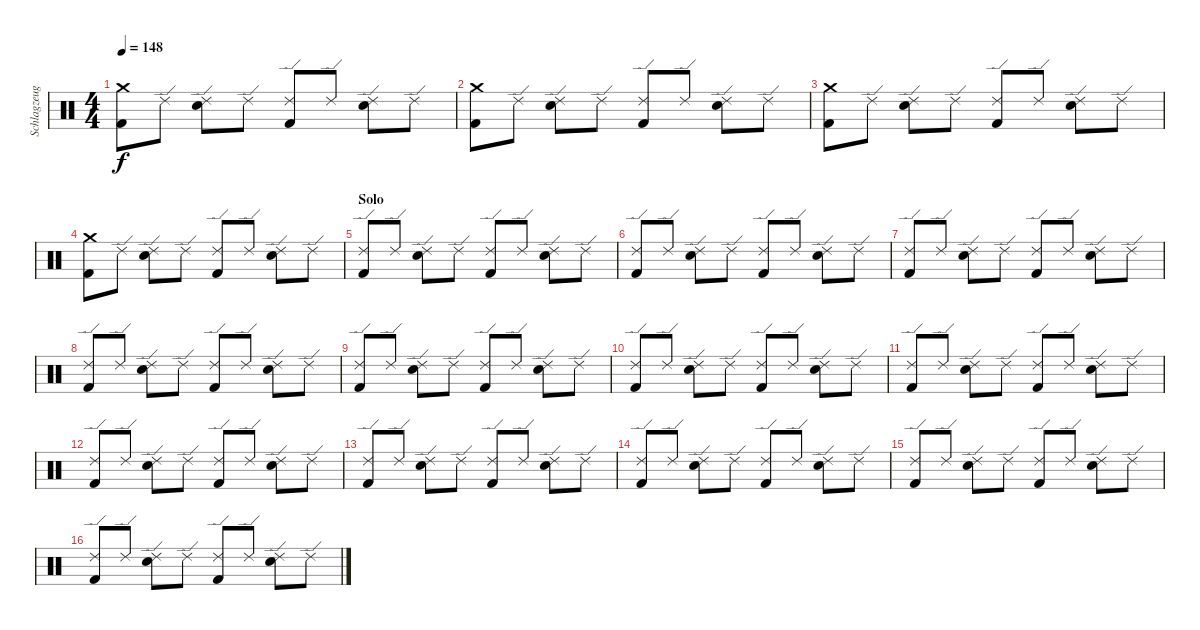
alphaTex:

\track ("Schlagzeug" "Schlagzeug") {instrument percussion}
\staff {score}
\articulation defaults
\ts (4 4)
\tempo 148
\clef neutral
\ks c
("Crash medium (hit)" "Kick (hit) 2").8{dy f} "Ride (edge) 2".8 ("Ride (edge) 2" "Snare (hit) 2").8 "Ride (edge) 2".8 ("Ride (edge) 2" "Kick (hit) 2").8 "Ride (edge) 2".8 ("Ride (edge) 2" "Snare (hit) 2").8 "Ride (edge) 2".8 |
("Crash medium (hit)" "Kick (hit) 2").8 "Ride (edge) 2".8 ("Ride (edge) 2" "Snare (hit) 2").8 "Ride (edge) 2".8 ("Ride (edge) 2" "Kick (hit) 2").8 "Ride (edge) 2".8 ("Ride (edge) 2" "Snare (hit) 2").8 "Ride (edge) 2".8 |
("Crash medium (hit)" "Kick (hit) 2").8 "Ride (edge) 2".8 ("Ride (edge) 2" "Snare (hit) 2").8 "Ride (edge) 2".8 ("Ride (edge) 2" "Kick (hit) 2").8 "Ride (edge) 2".8 ("Ride (edge) 2" "Snare (hit) 2").8 "Ride (edge) 2".8 |
("Crash medium (hit)" "Kick (hit) 2").8 "Ride (edge) 2".8 ("Ride (edge) 2" "Snare (hit) 2").8 "Ride (edge) 2".8 ("Ride (edge) 2" "Kick (hit) 2").8 "Ride (edge) 2".8 ("Ride (edge) 2" "Snare (hit) 2").8 "Ride (edge) 2".8 |
\section ("" "Solo")
("Ride (edge) 2" "Kick (hit) 2").8 "Ride (edge) 2".8 ("Ride (edge) 2" "Snare (hit) 2").8 "Ride (edge) 2".8 ("Ride (edge) 2" "Kick (hit) 2").8 "Ride (edge) 2".8 ("Ride (edge) 2" "Snare (hit) 2").8 "Ride (edge) 2".8 |
("Ride (edge) 2" "Kick (hit) 2").8 "Ride (edge) 2".8 ("Ride (edge) 2" "Snare (hit) 2").8 "Ride (edge) 2".8 ("Ride (edge) 2" "Kick (hit) 2").8 "Ride (edge) 2".8 ("Ride (edge) 2" "Snare (hit) 2").8 "Ride (edge) 2".8 |
("Ride (edge) 2" "Kick (hit) 2").8 "Ride (edge) 2".8 ("Ride (edge) 2" "Snare (hit) 2").8 "Ride (edge) 2".8 ("Ride (edge) 2" "Kick (hit) 2").8 "Ride (edge) 2".8 ("Ride (edge) 2" "Snare (hit) 2").8 "Ride (edge) 2".8 |
("Ride (edge) 2" "Kick (hit) 2").8 "Ride (edge) 2".8 ("Ride (edge) 2" "Snare (hit) 2").8 "Ride (edge) 2".8 ("Ride (edge) 2" "Kick (hit) 2").8 "Ride (edge) 2".8 ("Ride (edge) 2" "Snare (hit) 2").8 "Ride (edge) 2".8 |
("Ride (edge) 2" "Kick (hit) 2").8 "Ride (edge) 2".8 ("Ride (edge) 2" "Snare (hit) 2").8 "Ride (edge) 2".8 ("Ride (edge) 2" "Kick (hit) 2").8 "Ride (edge) 2".8 ("Ride (edge) 2" "Snare (hit) 2").8 "Ride (edge) 2".8 |
("Ride (edge) 2" "Kick (hit) 2").8 "Ride (edge) 2".8 ("Ride (edge) 2" "Snare (hit) 2").8 "Ride (edge) 2".8 ("Ride (edge) 2" "Kick (hit) 2").8 "Ride (edge) 2".8 ("Ride (edge) 2" "Snare (hit) 2").8 "Ride (edge) 2".8 |
("Ride (edge) 2" "Kick (hit) 2").8 "Ride (edge) 2".8 ("Ride (edge) 2" "Snare (hit) 2").8 "Ride (edge) 2".8 ("Ride (edge) 2" "Kick (hit) 2").8 "Ride (edge) 2".8 ("Ride (edge) 2" "Snare (hit) 2").8 "Ride (edge) 2".8 |
("Ride (edge) 2" "Kick (hit) 2").8 "Ride (edge) 2".8 ("Ride (edge) 2" "Snare (hit) 2").8 "Ride (edge) 2".8 ("Ride (edge) 2" "Kick (hit) 2").8 "Ride (edge) 2".8 ("Ride (edge) 2" "Snare (hit) 2").8 "Ride (edge) 2".8 |
("Ride (edge) 2" "Kick (hit) 2").8 "Ride (edge) 2".8 ("Ride (edge) 2" "Snare (hit) 2").8 "Ride (edge) 2".8 ("Ride (edge) 2" "Kick (hit) 2").8 "Ride (edge) 2".8 ("Ride (edge) 2" "Snare (hit) 2").8 "Ride (edge) 2".8 |
("Ride (edge) 2" "Kick (hit) 2").8 "Ride (edge) 2".8 ("Ride (edge) 2" "Snare (hit) 2").8 "Ride (edge) 2".8 ("Ride (edge) 2" "Kick (hit) 2").8 "Ride (edge) 2".8 ("Ride (edge) 2" "Snare (hit) 2").8 "Ride (edge) 2".8 |
("Ride (edge) 2" "Kick (hit) 2").8 "Ride (edge) 2".8 ("Ride (edge) 2" "Snare (hit) 2").8 "Ride (edge) 2".8 ("Ride (edge) 2" "Kick (hit) 2").8 "Ride (edge) 2".8 ("Ride (edge) 2" "Snare (hit) 2").8 "Ride (edge) 2".8 |
("Ride (edge) 2" "Kick (hit) 2").8 "Ride (edge) 2".8 ("Ride (edge) 2" "Snare (hit) 2").8 "Ride (edge) 2".8 ("Ride (edge) 2" "Kick (hit) 2").8 "Ride (edge) 2".8 ("Ride (edge) 2" "Snare (hit) 2").8 "Ride (edge) 2".8
